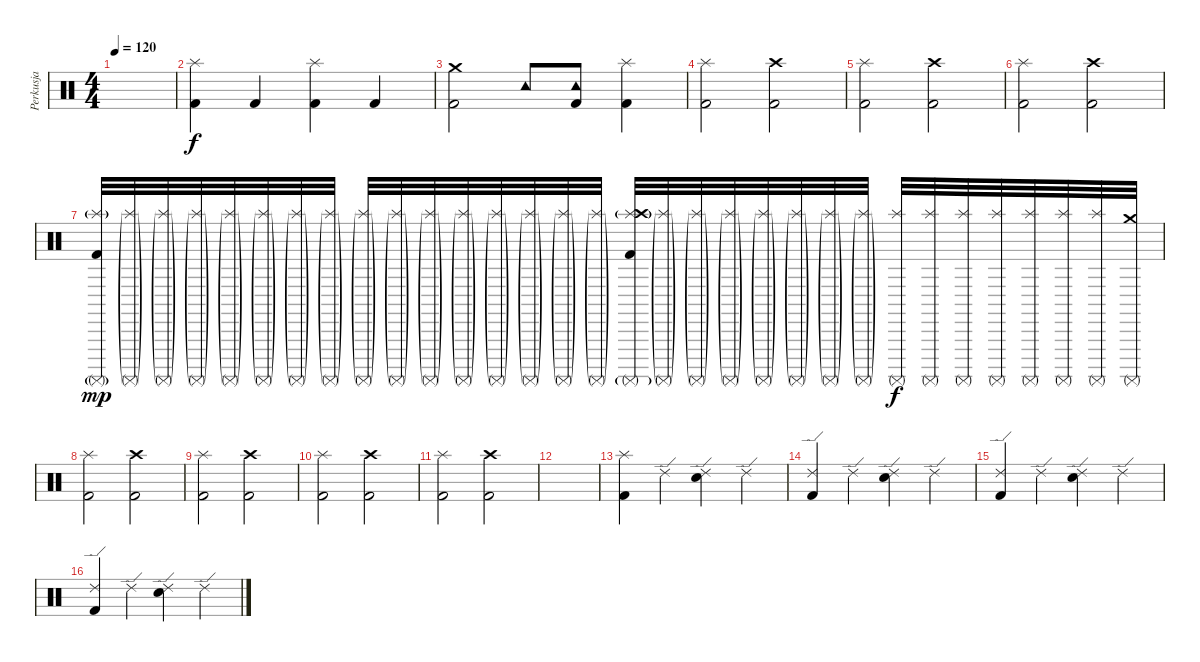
\track ("Perkusja" "Perkusja") {instrument percussion}
\staff {score}
\articulation defaults
\ts (4 4)
\tempo 120
\clef neutral
\ks c
|
("Splash (hit)" "Kick (hit) 2").4 "Kick (hit) 2".4 ("Splash (hit)" "Kick (hit) 2").4 "Kick (hit) 2".4 |
("Crash medium (hit)" "Kick (hit) 2").2 "Tambourine (hit)".8 ("Tambourine (hit)" "Kick (hit) 2").8 ("Splash (hit)" "Kick (hit) 2").4 |
("Splash (hit)" "Kick (hit) 2").2 ("Crash high (hit)" "Kick (hit) 2").2 |
("Splash (hit)" "Kick (hit) 2").2 ("Crash high (hit)" "Kick (hit) 2").2 |
("Splash (hit)" "Kick (hit) 2").2 ("Crash high (hit)" "Kick (hit) 2").2 |
("Surdo (mute)"{g} "Splash (hit)"{g} "Kick (hit) 2").32{dy mp} ("Surdo (mute)"{g} "Splash (hit)"{g}).32 ("Surdo (mute)"{g} "Splash (hit)"{g}).32 ("Surdo (mute)"{g} "Splash (hit)"{g}).32 ("Surdo (mute)"{g} "Splash (hit)"{g}).32 ("Surdo (mute)"{g} "Splash (hit)"{g}).32 ("Surdo (mute)"{g} "Splash (hit)"{g}).32 ("Surdo (mute)"{g} "Splash (hit)"{g}).32 ("Surdo (mute)"{g} "Splash (hit)"{g}).32 ("Surdo (mute)"{g} "Splash (hit)"{g}).32 ("Surdo (mute)"{g} "Splash (hit)"{g}).32 ("Surdo (mute)"{g} "Splash (hit)"{g}).32 ("Surdo (mute)"{g} "Splash (hit)"{g}).32 ("Surdo (mute)"{g} "Splash (hit)"{g}).32 ("Surdo (mute)"{g} "Splash (hit)"{g}).32 ("Surdo (mute)"{g} "Splash (hit)"{g}).32 ("Surdo (mute)"{g} "Splash (hit)"{g} "Crash high (hit)" "Kick (hit) 2").32 ("Surdo (mute)"{g} "Splash (hit)"{g}).32 ("Surdo (mute)"{g} "Splash (hit)"{g}).32 ("Surdo (mute)"{g} "Splash (hit)"{g}).32 ("Surdo (mute)"{g} "Splash (hit)"{g}).32 ("Surdo (mute)"{g} "Splash (hit)"{g}).32 ("Surdo (mute)"{g} "Splash (hit)"{g}).32 ("Surdo (mute)"{g} "Splash (hit)"{g}).32 ("Surdo (mute)" "Splash (hit)").32{dy f} ("Surdo (mute)" "Splash (hit)").32 ("Surdo (mute)" "Splash (hit)").32 ("Surdo (mute)" "Splash (hit)").32 ("Surdo (mute)" "Splash (hit)").32 ("Surdo (mute)" "Splash (hit)").32 ("Surdo (mute)" "Splash (hit)").32 ("Surdo (mute)" "Crash medium (hit)").32 |
("Splash (hit)" "Kick (hit) 2").2 ("Crash high (hit)" "Kick (hit) 2").2 |
("Splash (hit)" "Kick (hit) 2").2 ("Crash high (hit)" "Kick (hit) 2").2 |
("Splash (hit)" "Kick (hit) 2").2 ("Crash high (hit)" "Kick (hit) 2").2 |
("Splash (hit)" "Kick (hit) 2").2 ("Crash high (hit)" "Kick (hit) 2").2 |
|
("Splash (hit)" "Kick (hit) 2").4 "Ride (edge) 2".4 ("Ride (edge) 2" "Snare (hit) 2").4 "Ride (edge) 2".4 |
("Ride (edge) 2" "Kick (hit) 2").4 "Ride (edge) 2".4 ("Ride (edge) 2" "Snare (hit) 2").4 "Ride (edge) 2".4 |
("Ride (edge) 2" "Kick (hit) 2").4 "Ride (edge) 2".4 ("Ride (edge) 2" "Snare (hit) 2").4 "Ride (edge) 2".4 |
("Ride (edge) 2" "Kick (hit) 2").4 "Ride (edge) 2".4 ("Ride (edge) 2" "Snare (hit) 2").4 "Ride (edge) 2".4
